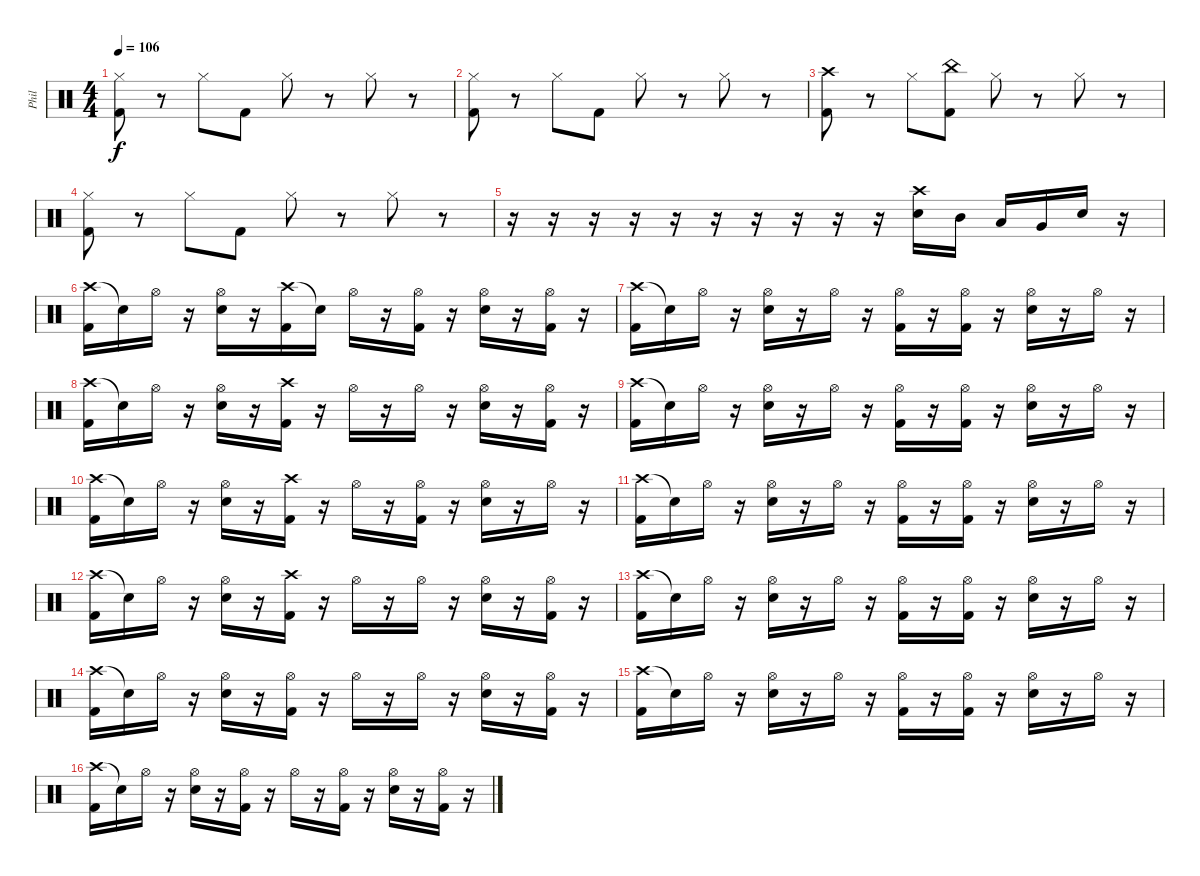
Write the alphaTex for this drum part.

\track ("Phil" "Phil") {instrument percussion}
\staff {score}
\articulation defaults
\ts (4 4)
\tempo 106
\clef neutral
\ks c
("Hi-Hat (closed)" "Kick (hit) 2").8{dy f} r.8 "Hi-Hat (closed)".8 "Kick (hit) 2".8 "Hi-Hat (closed)".8 r.8 "Hi-Hat (closed)".8 r.8 |
("Hi-Hat (closed)" "Kick (hit) 2").8 r.8 "Hi-Hat (closed)".8 "Kick (hit) 2".8 "Hi-Hat (closed)".8 r.8 "Hi-Hat (closed)".8 r.8 |
("Crash high (hit)" "Kick (hit) 2").8 r.8 "Hi-Hat (closed)".8 ("China (hit)" "Kick (hit) 2").8 "Hi-Hat (closed)".8 r.8 "Hi-Hat (closed)".8 r.8 |
("Hi-Hat (closed)" "Kick (hit) 2").8 r.8 "Hi-Hat (closed)".8 "Kick (hit) 2".8 "Hi-Hat (closed)".8 r.8 "Hi-Hat (closed)".8 r.8 |
r.16 r.16 r.16 r.16 r.16 r.16 r.16 r.16 r.16 r.16 ("Crash high (hit)" "Snare (hit) 2").16 "Mid Tom (hit)".16 "Low Tom (hit)".16 "Very Low Tom (hit)".16 "Snare (hit) 2".16 r.16 |
("Crash high (hit)" "Kick (hit) 2").16 "Snare (hit)"{t}.16 "Hi-Hat (open)".16 r.16 ("Hi-Hat (open)" "Snare (hit) 2").16 r.16 ("Crash high (hit)" "Kick (hit) 2").16 "Snare (hit)"{t}.16 "Hi-Hat (open)".16 r.16 ("Hi-Hat (open)" "Kick (hit) 2").16 r.16 ("Hi-Hat (open)" "Snare (hit) 2").16 r.16 ("Hi-Hat (open)" "Kick (hit) 2").16 r.16 |
("Crash high (hit)" "Kick (hit) 2").16 "Snare (hit)"{t}.16 "Hi-Hat (open)".16 r.16 ("Hi-Hat (open)" "Snare (hit) 2").16 r.16 "Hi-Hat (open)".16 r.16 ("Hi-Hat (open)" "Kick (hit) 2").16 r.16 ("Hi-Hat (open)" "Kick (hit) 2").16 r.16 ("Hi-Hat (open)" "Snare (hit) 2").16 r.16 "Hi-Hat (open)".16 r.16 |
("Crash high (hit)" "Kick (hit) 2").16 "Snare (hit)"{t}.16 "Hi-Hat (open)".16 r.16 ("Hi-Hat (open)" "Snare (hit) 2").16 r.16 ("Crash high (hit)" "Kick (hit) 2").16 r.16 "Hi-Hat (open)".16 r.16 "Hi-Hat (open)".16 r.16 ("Hi-Hat (open)" "Snare (hit) 2").16 r.16 ("Hi-Hat (open)" "Kick (hit) 2").16 r.16 |
("Crash high (hit)" "Kick (hit) 2").16 "Snare (hit)"{t}.16 "Hi-Hat (open)".16 r.16 ("Hi-Hat (open)" "Snare (hit) 2").16 r.16 "Hi-Hat (open)".16 r.16 ("Hi-Hat (open)" "Kick (hit) 2").16 r.16 ("Hi-Hat (open)" "Kick (hit) 2").16 r.16 ("Hi-Hat (open)" "Snare (hit) 2").16 r.16 "Hi-Hat (open)".16 r.16 |
("Crash high (hit)" "Kick (hit) 2").16 "Snare (hit)"{t}.16 "Hi-Hat (open)".16 r.16 ("Hi-Hat (open)" "Snare (hit) 2").16 r.16 ("Crash high (hit)" "Kick (hit) 2").16 r.16 "Hi-Hat (open)".16 r.16 ("Hi-Hat (open)" "Kick (hit) 2").16 r.16 ("Hi-Hat (open)" "Snare (hit) 2").16 r.16 "Hi-Hat (open)".16 r.16 |
("Crash high (hit)" "Kick (hit) 2").16 "Snare (hit)"{t}.16 "Hi-Hat (open)".16 r.16 ("Hi-Hat (open)" "Snare (hit) 2").16 r.16 "Hi-Hat (open)".16 r.16 ("Hi-Hat (open)" "Kick (hit) 2").16 r.16 ("Hi-Hat (open)" "Kick (hit) 2").16 r.16 ("Hi-Hat (open)" "Snare (hit) 2").16 r.16 "Hi-Hat (open)".16 r.16 |
("Crash high (hit)" "Kick (hit) 2").16 "Snare (hit)"{t}.16 "Hi-Hat (open)".16 r.16 ("Hi-Hat (open)" "Snare (hit) 2").16 r.16 ("Crash high (hit)" "Kick (hit) 2").16 r.16 "Hi-Hat (open)".16 r.16 "Hi-Hat (open)".16 r.16 ("Hi-Hat (open)" "Snare (hit) 2").16 r.16 ("Hi-Hat (open)" "Kick (hit) 2").16 r.16 |
("Crash high (hit)" "Kick (hit) 2").16 "Snare (hit)"{t}.16 "Hi-Hat (open)".16 r.16 ("Hi-Hat (open)" "Snare (hit) 2").16 r.16 "Hi-Hat (open)".16 r.16 ("Hi-Hat (open)" "Kick (hit) 2").16 r.16 ("Hi-Hat (open)" "Kick (hit) 2").16 r.16 ("Hi-Hat (open)" "Snare (hit) 2").16 r.16 "Hi-Hat (open)".16 r.16 |
("Crash high (hit)" "Kick (hit) 2").16 "Snare (hit)"{t}.16 "Hi-Hat (open)".16 r.16 ("Hi-Hat (open)" "Snare (hit) 2").16 r.16 ("Hi-Hat (open)" "Kick (hit) 2").16 r.16 "Hi-Hat (open)".16 r.16 "Hi-Hat (open)".16 r.16 ("Hi-Hat (open)" "Snare (hit) 2").16 r.16 ("Hi-Hat (open)" "Kick (hit) 2").16 r.16 |
("Crash high (hit)" "Kick (hit) 2").16 "Snare (hit)"{t}.16 "Hi-Hat (open)".16 r.16 ("Hi-Hat (open)" "Snare (hit) 2").16 r.16 "Hi-Hat (open)".16 r.16 ("Hi-Hat (open)" "Kick (hit) 2").16 r.16 ("Hi-Hat (open)" "Kick (hit) 2").16 r.16 ("Hi-Hat (open)" "Snare (hit) 2").16 r.16 "Hi-Hat (open)".16 r.16 |
("Crash high (hit)" "Kick (hit) 2").16 "Snare (hit)"{t}.16 "Hi-Hat (open)".16 r.16 ("Hi-Hat (open)" "Snare (hit) 2").16 r.16 ("Hi-Hat (open)" "Kick (hit) 2").16 r.16 "Hi-Hat (open)".16 r.16 ("Hi-Hat (open)" "Kick (hit) 2").16 r.16 ("Hi-Hat (open)" "Snare (hit) 2").16 r.16 ("Hi-Hat (open)" "Kick (hit) 2").16 r.16
